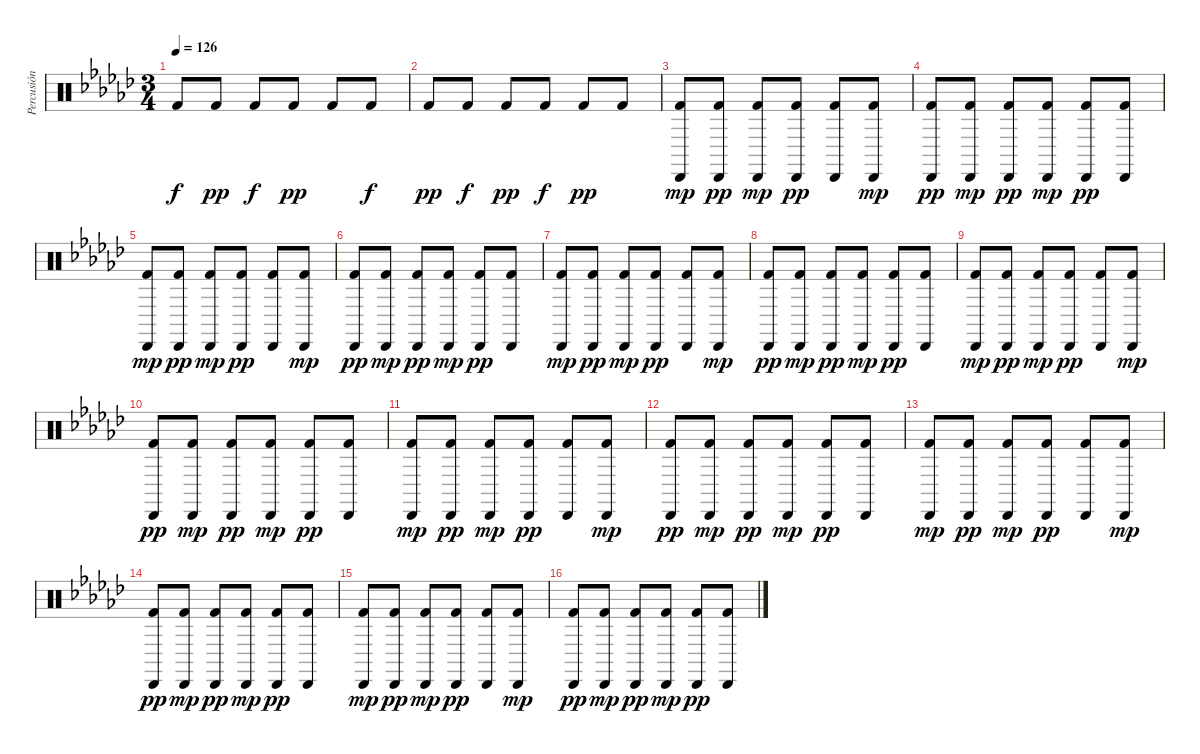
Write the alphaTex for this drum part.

\track ("Percusión" "Percusión") {instrument percussion}
\staff {score}
\articulation defaults
\ts (3 4)
\tempo 126
\clef neutral
\ks ebminor "Kick (hit) 2".8{dy f} "Kick (hit) 2".8{dy pp} "Kick (hit) 2".8{dy f} "Kick (hit) 2".8{dy pp} "Kick (hit) 2".8 "Kick (hit) 2".8{dy f}
|
"Kick (hit) 2".8{dy pp} "Kick (hit) 2".8{dy f} "Kick (hit) 2".8{dy pp} "Kick (hit) 2".8{dy f} "Kick (hit) 2".8{dy pp} "Kick (hit) 2".8 |
("Cabasa (hit)" "Kick (hit) 2").8{dy mp} ("Cabasa (hit)" "Kick (hit) 2").8{dy pp} ("Cabasa (hit)" "Kick (hit) 2").8{dy mp} ("Cabasa (hit)" "Kick (hit) 2").8{dy pp} ("Cabasa (hit)" "Kick (hit) 2").8 ("Cabasa (hit)" "Kick (hit) 2").8{dy mp} |
("Cabasa (hit)" "Kick (hit) 2").8{dy pp} ("Cabasa (hit)" "Kick (hit) 2").8{dy mp} ("Cabasa (hit)" "Kick (hit) 2").8{dy pp} ("Cabasa (hit)" "Kick (hit) 2").8{dy mp} ("Cabasa (hit)" "Kick (hit) 2").8{dy pp} ("Cabasa (hit)" "Kick (hit) 2").8 |
("Cabasa (hit)" "Kick (hit) 2").8{dy mp} ("Cabasa (hit)" "Kick (hit) 2").8{dy pp} ("Cabasa (hit)" "Kick (hit) 2").8{dy mp} ("Cabasa (hit)" "Kick (hit) 2").8{dy pp} ("Cabasa (hit)" "Kick (hit) 2").8 ("Cabasa (hit)" "Kick (hit) 2").8{dy mp} |
("Cabasa (hit)" "Kick (hit) 2").8{dy pp} ("Cabasa (hit)" "Kick (hit) 2").8{dy mp} ("Cabasa (hit)" "Kick (hit) 2").8{dy pp} ("Cabasa (hit)" "Kick (hit) 2").8{dy mp} ("Cabasa (hit)" "Kick (hit) 2").8{dy pp} ("Cabasa (hit)" "Kick (hit) 2").8 |
("Cabasa (hit)" "Kick (hit) 2").8{dy mp} ("Cabasa (hit)" "Kick (hit) 2").8{dy pp} ("Cabasa (hit)" "Kick (hit) 2").8{dy mp} ("Cabasa (hit)" "Kick (hit) 2").8{dy pp} ("Cabasa (hit)" "Kick (hit) 2").8 ("Cabasa (hit)" "Kick (hit) 2").8{dy mp} |
("Cabasa (hit)" "Kick (hit) 2").8{dy pp} ("Cabasa (hit)" "Kick (hit) 2").8{dy mp} ("Cabasa (hit)" "Kick (hit) 2").8{dy pp} ("Cabasa (hit)" "Kick (hit) 2").8{dy mp} ("Cabasa (hit)" "Kick (hit) 2").8{dy pp} ("Cabasa (hit)" "Kick (hit) 2").8 |
("Cabasa (hit)" "Kick (hit) 2").8{dy mp} ("Cabasa (hit)" "Kick (hit) 2").8{dy pp} ("Cabasa (hit)" "Kick (hit) 2").8{dy mp} ("Cabasa (hit)" "Kick (hit) 2").8{dy pp} ("Cabasa (hit)" "Kick (hit) 2").8 ("Cabasa (hit)" "Kick (hit) 2").8{dy mp} |
("Cabasa (hit)" "Kick (hit) 2").8{dy pp} ("Cabasa (hit)" "Kick (hit) 2").8{dy mp} ("Cabasa (hit)" "Kick (hit) 2").8{dy pp} ("Cabasa (hit)" "Kick (hit) 2").8{dy mp} ("Cabasa (hit)" "Kick (hit) 2").8{dy pp} ("Cabasa (hit)" "Kick (hit) 2").8 |
("Cabasa (hit)" "Kick (hit) 2").8{dy mp} ("Cabasa (hit)" "Kick (hit) 2").8{dy pp} ("Cabasa (hit)" "Kick (hit) 2").8{dy mp} ("Cabasa (hit)" "Kick (hit) 2").8{dy pp} ("Cabasa (hit)" "Kick (hit) 2").8 ("Cabasa (hit)" "Kick (hit) 2").8{dy mp} |
("Cabasa (hit)" "Kick (hit) 2").8{dy pp} ("Cabasa (hit)" "Kick (hit) 2").8{dy mp} ("Cabasa (hit)" "Kick (hit) 2").8{dy pp} ("Cabasa (hit)" "Kick (hit) 2").8{dy mp} ("Cabasa (hit)" "Kick (hit) 2").8{dy pp} ("Cabasa (hit)" "Kick (hit) 2").8 |
("Cabasa (hit)" "Kick (hit) 2").8{dy mp} ("Cabasa (hit)" "Kick (hit) 2").8{dy pp} ("Cabasa (hit)" "Kick (hit) 2").8{dy mp} ("Cabasa (hit)" "Kick (hit) 2").8{dy pp} ("Cabasa (hit)" "Kick (hit) 2").8 ("Cabasa (hit)" "Kick (hit) 2").8{dy mp} |
("Cabasa (hit)" "Kick (hit) 2").8{dy pp} ("Cabasa (hit)" "Kick (hit) 2").8{dy mp} ("Cabasa (hit)" "Kick (hit) 2").8{dy pp} ("Cabasa (hit)" "Kick (hit) 2").8{dy mp} ("Cabasa (hit)" "Kick (hit) 2").8{dy pp} ("Cabasa (hit)" "Kick (hit) 2").8 |
("Cabasa (hit)" "Kick (hit) 2").8{dy mp} ("Cabasa (hit)" "Kick (hit) 2").8{dy pp} ("Cabasa (hit)" "Kick (hit) 2").8{dy mp} ("Cabasa (hit)" "Kick (hit) 2").8{dy pp} ("Cabasa (hit)" "Kick (hit) 2").8 ("Cabasa (hit)" "Kick (hit) 2").8{dy mp} |
("Cabasa (hit)" "Kick (hit) 2").8{dy pp} ("Cabasa (hit)" "Kick (hit) 2").8{dy mp} ("Cabasa (hit)" "Kick (hit) 2").8{dy pp} ("Cabasa (hit)" "Kick (hit) 2").8{dy mp} ("Cabasa (hit)" "Kick (hit) 2").8{dy pp} ("Cabasa (hit)" "Kick (hit) 2").8
